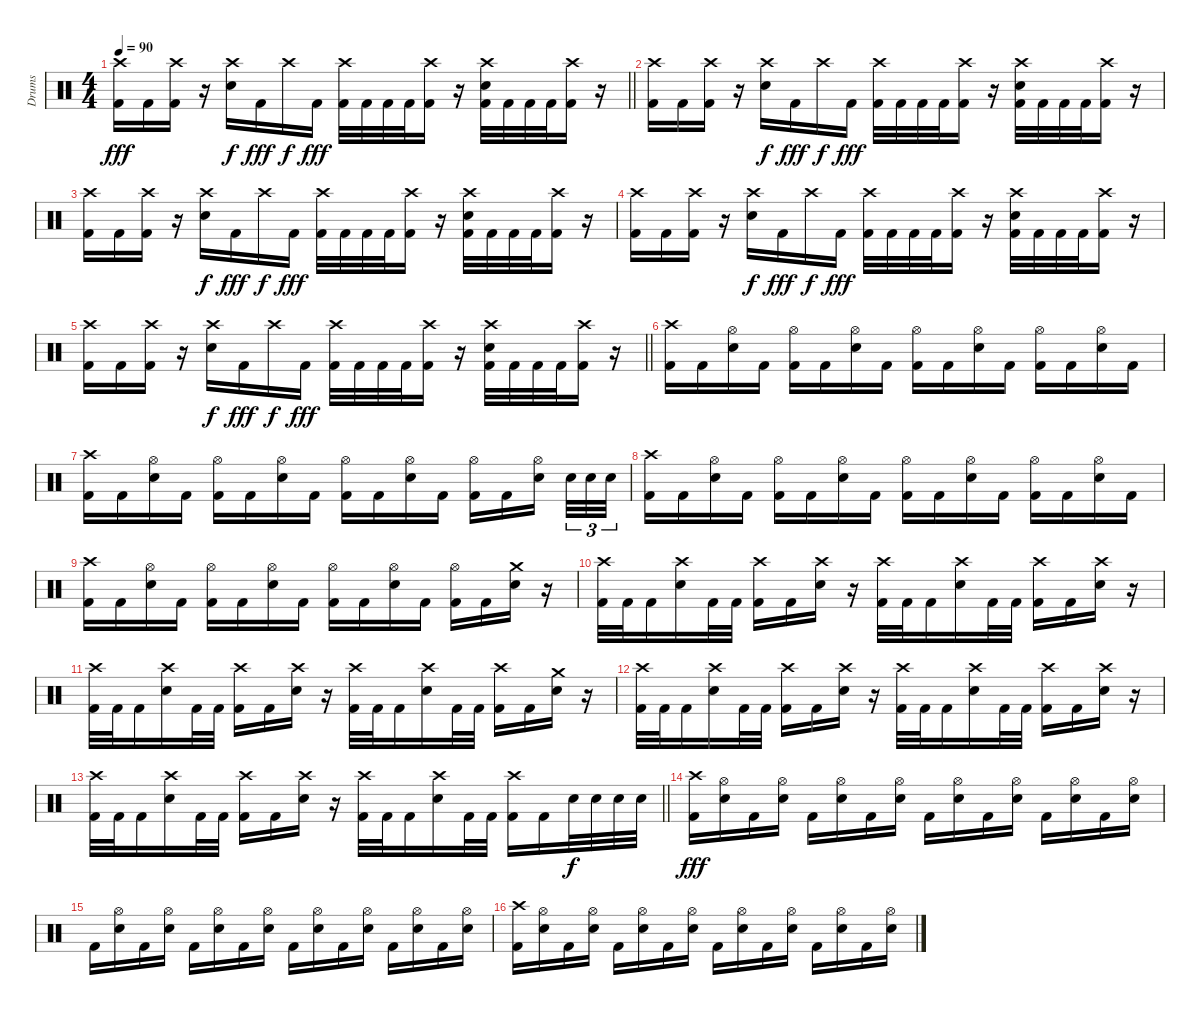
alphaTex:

\track ("Drums" "Drums") {instrument percussion}
\staff {score}
\articulation defaults
\ts (4 4)
\tempo 90
\clef neutral
\barLineRight lightlight
\ks c
("Crash high (hit)" "Kick (hit) 2").16{dy fff} "Kick (hit) 2".16 ("Crash high (hit)" "Kick (hit) 2").16 r.16 ("Crash high (hit)" "Electric Snare (hit)").16{dy f} "Kick (hit) 2".16{dy fff} "Crash high (hit)".16{dy f} "Kick (hit) 2".16{dy fff} ("Crash high (hit)" "Kick (hit) 2").32 "Kick (hit) 2".32 "Kick (hit) 2".32 "Kick (hit) 2".32 ("Crash high (hit)" "Kick (hit) 2").16 r.16 ("Crash high (hit)" "Electric Snare (hit)" "Kick (hit) 2").32 "Kick (hit) 2".32 "Kick (hit) 2".32 "Kick (hit) 2".32 ("Crash high (hit)" "Kick (hit) 2").16 r.16 |
("Crash high (hit)" "Kick (hit) 2").16 "Kick (hit) 2".16 ("Crash high (hit)" "Kick (hit) 2").16 r.16 ("Crash high (hit)" "Electric Snare (hit)").16{dy f} "Kick (hit) 2".16{dy fff} "Crash high (hit)".16{dy f} "Kick (hit) 2".16{dy fff} ("Crash high (hit)" "Kick (hit) 2").32 "Kick (hit) 2".32 "Kick (hit) 2".32 "Kick (hit) 2".32 ("Crash high (hit)" "Kick (hit) 2").16 r.16 ("Crash high (hit)" "Electric Snare (hit)" "Kick (hit) 2").32 "Kick (hit) 2".32 "Kick (hit) 2".32 "Kick (hit) 2".32 ("Crash high (hit)" "Kick (hit) 2").16 r.16 |
("Crash high (hit)" "Kick (hit) 2").16 "Kick (hit) 2".16 ("Crash high (hit)" "Kick (hit) 2").16 r.16 ("Crash high (hit)" "Electric Snare (hit)").16{dy f} "Kick (hit) 2".16{dy fff} "Crash high (hit)".16{dy f} "Kick (hit) 2".16{dy fff} ("Crash high (hit)" "Kick (hit) 2").32 "Kick (hit) 2".32 "Kick (hit) 2".32 "Kick (hit) 2".32 ("Crash high (hit)" "Kick (hit) 2").16 r.16 ("Crash high (hit)" "Electric Snare (hit)" "Kick (hit) 2").32 "Kick (hit) 2".32 "Kick (hit) 2".32 "Kick (hit) 2".32 ("Crash high (hit)" "Kick (hit) 2").16 r.16 |
("Crash high (hit)" "Kick (hit) 2").16 "Kick (hit) 2".16 ("Crash high (hit)" "Kick (hit) 2").16 r.16 ("Crash high (hit)" "Electric Snare (hit)").16{dy f} "Kick (hit) 2".16{dy fff} "Crash high (hit)".16{dy f} "Kick (hit) 2".16{dy fff} ("Crash high (hit)" "Kick (hit) 2").32 "Kick (hit) 2".32 "Kick (hit) 2".32 "Kick (hit) 2".32 ("Crash high (hit)" "Kick (hit) 2").16 r.16 ("Crash high (hit)" "Electric Snare (hit)" "Kick (hit) 2").32 "Kick (hit) 2".32 "Kick (hit) 2".32 "Kick (hit) 2".32 ("Crash high (hit)" "Kick (hit) 2").16 r.16 |
\barLineRight lightlight
("Crash high (hit)" "Kick (hit) 2").16 "Kick (hit) 2".16 ("Crash high (hit)" "Kick (hit) 2").16 r.16 ("Crash high (hit)" "Electric Snare (hit)").16{dy f} "Kick (hit) 2".16{dy fff} "Crash high (hit)".16{dy f} "Kick (hit) 2".16{dy fff} ("Crash high (hit)" "Kick (hit) 2").32 "Kick (hit) 2".32 "Kick (hit) 2".32 "Kick (hit) 2".32 ("Crash high (hit)" "Kick (hit) 2").16 r.16 ("Crash high (hit)" "Electric Snare (hit)" "Kick (hit) 2").32 "Kick (hit) 2".32 "Kick (hit) 2".32 "Kick (hit) 2".32 ("Crash high (hit)" "Kick (hit) 2").16 r.16 |
\section ("" "")
("Crash high (hit)" "Kick (hit) 2").16 "Kick (hit) 2".16 ("Hi-Hat (open)" "Electric Snare (hit)").16 "Kick (hit) 2".16 ("Hi-Hat (open)" "Kick (hit) 2").16 "Kick (hit) 2".16 ("Hi-Hat (open)" "Electric Snare (hit)").16 "Kick (hit) 2".16 ("Hi-Hat (open)" "Kick (hit) 2").16 "Kick (hit) 2".16 ("Hi-Hat (open)" "Electric Snare (hit)").16 "Kick (hit) 2".16 ("Hi-Hat (open)" "Kick (hit) 2").16 "Kick (hit) 2".16 ("Hi-Hat (open)" "Electric Snare (hit)").16 "Kick (hit) 2".16 |
("Crash high (hit)" "Kick (hit) 2").16 "Kick (hit) 2".16 ("Hi-Hat (open)" "Electric Snare (hit)").16 "Kick (hit) 2".16 ("Hi-Hat (open)" "Kick (hit) 2").16 "Kick (hit) 2".16 ("Hi-Hat (open)" "Electric Snare (hit)").16 "Kick (hit) 2".16 ("Hi-Hat (open)" "Kick (hit) 2").16 "Kick (hit) 2".16 ("Hi-Hat (open)" "Electric Snare (hit)").16 "Kick (hit) 2".16 ("Hi-Hat (open)" "Kick (hit) 2").16 "Kick (hit) 2".16 ("Hi-Hat (open)" "Electric Snare (hit)").16{beam splitsecondary} "Electric Snare (hit)".32{tu (3 2)} "Electric Snare (hit)".32{tu (3 2)} "Electric Snare (hit)".32{tu (3 2)} |
("Crash high (hit)" "Kick (hit) 2").16 "Kick (hit) 2".16 ("Hi-Hat (open)" "Electric Snare (hit)").16 "Kick (hit) 2".16 ("Hi-Hat (open)" "Kick (hit) 2").16 "Kick (hit) 2".16 ("Hi-Hat (open)" "Electric Snare (hit)").16 "Kick (hit) 2".16 ("Hi-Hat (open)" "Kick (hit) 2").16 "Kick (hit) 2".16 ("Hi-Hat (open)" "Electric Snare (hit)").16 "Kick (hit) 2".16 ("Hi-Hat (open)" "Kick (hit) 2").16 "Kick (hit) 2".16 ("Hi-Hat (open)" "Electric Snare (hit)").16 "Kick (hit) 2".16 |
("Crash high (hit)" "Kick (hit) 2").16 "Kick (hit) 2".16 ("Hi-Hat (open)" "Electric Snare (hit)").16 "Kick (hit) 2".16 ("Hi-Hat (open)" "Kick (hit) 2").16 "Kick (hit) 2".16 ("Hi-Hat (open)" "Electric Snare (hit)").16 "Kick (hit) 2".16 ("Hi-Hat (open)" "Kick (hit) 2").16 "Kick (hit) 2".16 ("Hi-Hat (open)" "Electric Snare (hit)").16 "Kick (hit) 2".16 ("Hi-Hat (open)" "Kick (hit) 2").16 "Kick (hit) 2".16 ("Crash medium (hit)" "Electric Snare (hit)").16 r.16 |
("Crash high (hit)" "Kick (hit) 2").32 "Kick (hit) 2".32 "Kick (hit) 2".16 ("Crash high (hit)" "Electric Snare (hit)").16 "Kick (hit) 2".32 "Kick (hit) 2".32 ("Crash high (hit)" "Kick (hit) 2").16 "Kick (hit) 2".16 ("Crash high (hit)" "Electric Snare (hit)").16 r.16 ("Crash high (hit)" "Kick (hit) 2").32 "Kick (hit) 2".32 "Kick (hit) 2".16 ("Crash high (hit)" "Electric Snare (hit)").16 "Kick (hit) 2".32 "Kick (hit) 2".32 ("Crash high (hit)" "Kick (hit) 2").16 "Kick (hit) 2".16 ("Crash high (hit)" "Electric Snare (hit)").16 r.16 |
("Crash high (hit)" "Kick (hit) 2").32 "Kick (hit) 2".32 "Kick (hit) 2".16 ("Crash high (hit)" "Electric Snare (hit)").16 "Kick (hit) 2".32 "Kick (hit) 2".32 ("Crash high (hit)" "Kick (hit) 2").16 "Kick (hit) 2".16 ("Crash high (hit)" "Electric Snare (hit)").16 r.16 ("Crash high (hit)" "Kick (hit) 2").32 "Kick (hit) 2".32 "Kick (hit) 2".16 ("Crash high (hit)" "Electric Snare (hit)").16 "Kick (hit) 2".32 "Kick (hit) 2".32 ("Crash high (hit)" "Kick (hit) 2").16 "Kick (hit) 2".16 ("Crash medium (hit)" "Electric Snare (hit)").16 r.16 |
("Crash high (hit)" "Kick (hit) 2").32 "Kick (hit) 2".32 "Kick (hit) 2".16 ("Crash high (hit)" "Electric Snare (hit)").16 "Kick (hit) 2".32 "Kick (hit) 2".32 ("Crash high (hit)" "Kick (hit) 2").16 "Kick (hit) 2".16 ("Crash high (hit)" "Electric Snare (hit)").16 r.16 ("Crash high (hit)" "Kick (hit) 2").32 "Kick (hit) 2".32 "Kick (hit) 2".16 ("Crash high (hit)" "Electric Snare (hit)").16 "Kick (hit) 2".32 "Kick (hit) 2".32 ("Crash high (hit)" "Kick (hit) 2").16 "Kick (hit) 2".16 ("Crash high (hit)" "Electric Snare (hit)").16 r.16 |
\barLineRight lightlight
("Crash high (hit)" "Kick (hit) 2").32 "Kick (hit) 2".32 "Kick (hit) 2".16 ("Crash high (hit)" "Electric Snare (hit)").16 "Kick (hit) 2".32 "Kick (hit) 2".32 ("Crash high (hit)" "Kick (hit) 2").16 "Kick (hit) 2".16 ("Crash high (hit)" "Electric Snare (hit)").16 r.16 ("Crash high (hit)" "Kick (hit) 2").32 "Kick (hit) 2".32 "Kick (hit) 2".16 ("Crash high (hit)" "Electric Snare (hit)").16 "Kick (hit) 2".32 "Kick (hit) 2".32 ("Crash high (hit)" "Kick (hit) 2").16 "Kick (hit) 2".16 "Electric Snare (hit)".32{dy f} "Electric Snare (hit)".32 "Electric Snare (hit)".32 "Electric Snare (hit)".32 |
\section ("" "")
("Crash high (hit)" "Kick (hit) 2").16{dy fff} ("Hi-Hat (open)" "Electric Snare (hit)").16 "Kick (hit) 2".16 ("Hi-Hat (open)" "Electric Snare (hit)").16 "Kick (hit) 2".16 ("Hi-Hat (open)" "Electric Snare (hit)").16 "Kick (hit) 2".16 ("Hi-Hat (open)" "Electric Snare (hit)").16 "Kick (hit) 2".16 ("Hi-Hat (open)" "Electric Snare (hit)").16 "Kick (hit) 2".16 ("Hi-Hat (open)" "Electric Snare (hit)").16 "Kick (hit) 2".16 ("Hi-Hat (open)" "Electric Snare (hit)").16 "Kick (hit) 2".16 ("Hi-Hat (open)" "Electric Snare (hit)").16 |
"Kick (hit) 2".16 ("Hi-Hat (open)" "Electric Snare (hit)").16 "Kick (hit) 2".16 ("Hi-Hat (open)" "Electric Snare (hit)").16 "Kick (hit) 2".16 ("Hi-Hat (open)" "Electric Snare (hit)").16 "Kick (hit) 2".16 ("Hi-Hat (open)" "Electric Snare (hit)").16 "Kick (hit) 2".16 ("Hi-Hat (open)" "Electric Snare (hit)").16 "Kick (hit) 2".16 ("Hi-Hat (open)" "Electric Snare (hit)").16 "Kick (hit) 2".16 ("Hi-Hat (open)" "Electric Snare (hit)").16 "Kick (hit) 2".16 ("Hi-Hat (open)" "Electric Snare (hit)").16 |
("Crash high (hit)" "Kick (hit) 2").16 ("Hi-Hat (open)" "Electric Snare (hit)").16 "Kick (hit) 2".16 ("Hi-Hat (open)" "Electric Snare (hit)").16 "Kick (hit) 2".16 ("Hi-Hat (open)" "Electric Snare (hit)").16 "Kick (hit) 2".16 ("Hi-Hat (open)" "Electric Snare (hit)").16 "Kick (hit) 2".16 ("Hi-Hat (open)" "Electric Snare (hit)").16 "Kick (hit) 2".16 ("Hi-Hat (open)" "Electric Snare (hit)").16 "Kick (hit) 2".16 ("Hi-Hat (open)" "Electric Snare (hit)").16 "Kick (hit) 2".16 ("Hi-Hat (open)" "Electric Snare (hit)").16
